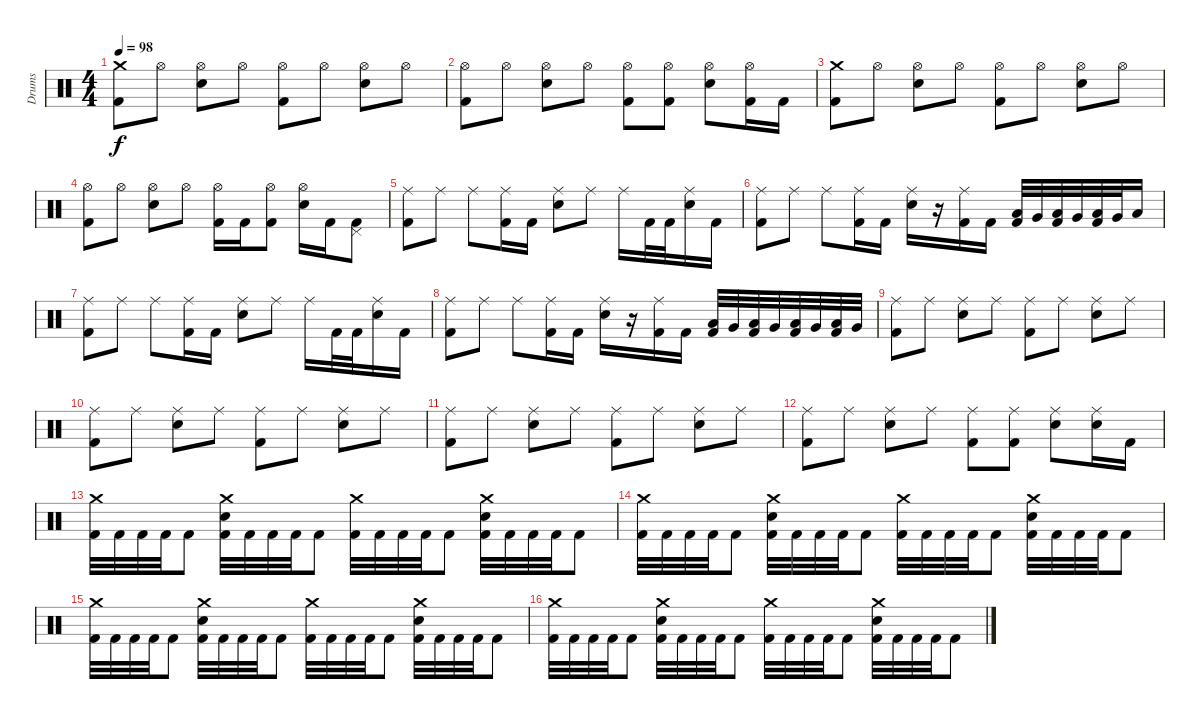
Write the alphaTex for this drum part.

\track ("Drums" "Drums") {instrument percussion}
\staff {score}
\articulation defaults
\ts (4 4)
\tempo 98
\clef neutral
\ks c
("Crash medium (hit)" "Kick (hit) 2").8{dy f} "Hi-Hat (open)".8 ("Hi-Hat (open)" "Snare (hit) 2").8 "Hi-Hat (open)".8 ("Hi-Hat (open)" "Kick (hit) 2").8 "Hi-Hat (open)".8 ("Hi-Hat (open)" "Snare (hit) 2").8 "Hi-Hat (open)".8 |
("Hi-Hat (open)" "Kick (hit) 2").8 "Hi-Hat (open)".8 ("Hi-Hat (open)" "Snare (hit) 2").8 "Hi-Hat (open)".8 ("Hi-Hat (open)" "Kick (hit) 2").8 ("Hi-Hat (open)" "Kick (hit) 2").8 ("Hi-Hat (open)" "Snare (hit) 2").8 ("Hi-Hat (open)" "Kick (hit) 2").16 "Kick (hit) 2".16 |
("Crash medium (hit)" "Kick (hit) 2").8 "Hi-Hat (open)".8 ("Hi-Hat (open)" "Snare (hit) 2").8 "Hi-Hat (open)".8 ("Hi-Hat (open)" "Kick (hit) 2").8 "Hi-Hat (open)".8 ("Hi-Hat (open)" "Snare (hit) 2").8 "Hi-Hat (open)".8 |
("Hi-Hat (open)" "Kick (hit) 2").8 "Hi-Hat (open)".8 ("Hi-Hat (open)" "Snare (hit) 2").8 "Hi-Hat (open)".8 ("Hi-Hat (open)" "Kick (hit) 2").16 "Kick (hit) 2".16 ("Hi-Hat (open)" "Kick (hit) 2").8 ("Hi-Hat (open)" "Snare (hit) 2").16 "Kick (hit) 2".16 ("Pedal Hi-Hat (hit)" "Kick (hit) 2").8 |
("Ride (middle)" "Kick (hit) 2").8 "Ride (middle)".8 "Ride (middle)".8 ("Ride (middle)" "Kick (hit) 2").16 "Kick (hit) 2".16 ("Ride (middle)" "Snare (hit) 2").8 "Ride (middle)".8 "Ride (middle)".16 "Kick (hit) 2".32 "Kick (hit) 2".32 ("Ride (middle)" "Snare (hit) 2").16 "Kick (hit) 2".16 |
("Ride (middle)" "Kick (hit) 2").8 "Ride (middle)".8 "Ride (middle)".8 ("Ride (middle)" "Kick (hit) 2").16 "Kick (hit) 2".16 ("Ride (middle)" "Snare (hit) 2").16 r.16 ("Ride (middle)" "Kick (hit) 2").16 "Kick (hit) 2".16 ("Low Tom (hit)" "Kick (hit) 2").32 "Very Low Tom (hit)".32 ("Low Tom (hit)" "Kick (hit) 2").32 "Very Low Tom (hit)".32 ("Low Tom (hit)" "Kick (hit) 2").32 "Very Low Tom (hit)".32 "Low Tom (hit)".16 |
("Ride (middle)" "Kick (hit) 2").8 "Ride (middle)".8 "Ride (middle)".8 ("Ride (middle)" "Kick (hit) 2").16 "Kick (hit) 2".16 ("Ride (middle)" "Snare (hit) 2").8 "Ride (middle)".8 "Ride (middle)".16 "Kick (hit) 2".32 "Kick (hit) 2".32 ("Ride (middle)" "Snare (hit) 2").16 "Kick (hit) 2".16 |
("Ride (middle)" "Kick (hit) 2").8 "Ride (middle)".8 "Ride (middle)".8 ("Ride (middle)" "Kick (hit) 2").16 "Kick (hit) 2".16 ("Ride (middle)" "Snare (hit) 2").16 r.16 ("Ride (middle)" "Kick (hit) 2").16 "Kick (hit) 2".16 ("Low Tom (hit)" "Kick (hit) 2").32 "Very Low Tom (hit)".32 ("Low Tom (hit)" "Kick (hit) 2").32 "Very Low Tom (hit)".32 ("Low Tom (hit)" "Kick (hit) 2").32 "Very Low Tom (hit)".32 ("Low Tom (hit)" "Kick (hit) 2").32 "Very Low Tom (hit)".32 |
("Ride (middle)" "Kick (hit) 2").8 "Ride (middle)".8 ("Ride (middle)" "Snare (hit) 2").8 "Ride (middle)".8 ("Ride (middle)" "Kick (hit) 2").8 "Ride (middle)".8 ("Ride (middle)" "Snare (hit) 2").8 "Ride (middle)".8 |
("Ride (middle)" "Kick (hit) 2").8 "Ride (middle)".8 ("Ride (middle)" "Snare (hit) 2").8 "Ride (middle)".8 ("Ride (middle)" "Kick (hit) 2").8 "Ride (middle)".8 ("Ride (middle)" "Snare (hit) 2").8 "Ride (middle)".8 |
("Ride (middle)" "Kick (hit) 2").8 "Ride (middle)".8 ("Ride (middle)" "Snare (hit) 2").8 "Ride (middle)".8 ("Ride (middle)" "Kick (hit) 2").8 "Ride (middle)".8 ("Ride (middle)" "Snare (hit) 2").8 "Ride (middle)".8 |
("Ride (middle)" "Kick (hit) 2").8 "Ride (middle)".8 ("Ride (middle)" "Snare (hit) 2").8 "Ride (middle)".8 ("Ride (middle)" "Kick (hit) 2").8 ("Ride (middle)" "Kick (hit) 2").8 ("Ride (middle)" "Snare (hit) 2").8 ("Ride (middle)" "Snare (hit) 2").16 "Kick (hit) 2".16 |
("Crash medium (hit)" "Kick (hit) 2").32 "Kick (hit) 2".32 "Kick (hit) 2".32 "Kick (hit) 2".32 "Kick (hit) 2".8 ("Crash medium (hit)" "Snare (hit) 2" "Kick (hit) 2").32 "Kick (hit) 2".32 "Kick (hit) 2".32 "Kick (hit) 2".32 "Kick (hit) 2".8 ("Crash medium (hit)" "Kick (hit) 2").32 "Kick (hit) 2".32 "Kick (hit) 2".32 "Kick (hit) 2".32 "Kick (hit) 2".8 ("Crash medium (hit)" "Snare (hit) 2" "Kick (hit) 2").32 "Kick (hit) 2".32 "Kick (hit) 2".32 "Kick (hit) 2".32 "Kick (hit) 2".8 |
("Crash medium (hit)" "Kick (hit) 2").32 "Kick (hit) 2".32 "Kick (hit) 2".32 "Kick (hit) 2".32 "Kick (hit) 2".8 ("Crash medium (hit)" "Snare (hit) 2" "Kick (hit) 2").32 "Kick (hit) 2".32 "Kick (hit) 2".32 "Kick (hit) 2".32 "Kick (hit) 2".8 ("Crash medium (hit)" "Kick (hit) 2").32 "Kick (hit) 2".32 "Kick (hit) 2".32 "Kick (hit) 2".32 "Kick (hit) 2".8 ("Crash medium (hit)" "Snare (hit) 2" "Kick (hit) 2").32 "Kick (hit) 2".32 "Kick (hit) 2".32 "Kick (hit) 2".32 "Kick (hit) 2".8 |
("Crash medium (hit)" "Kick (hit) 2").32 "Kick (hit) 2".32 "Kick (hit) 2".32 "Kick (hit) 2".32 "Kick (hit) 2".8 ("Crash medium (hit)" "Snare (hit) 2" "Kick (hit) 2").32 "Kick (hit) 2".32 "Kick (hit) 2".32 "Kick (hit) 2".32 "Kick (hit) 2".8 ("Crash medium (hit)" "Kick (hit) 2").32 "Kick (hit) 2".32 "Kick (hit) 2".32 "Kick (hit) 2".32 "Kick (hit) 2".8 ("Crash medium (hit)" "Snare (hit) 2" "Kick (hit) 2").32 "Kick (hit) 2".32 "Kick (hit) 2".32 "Kick (hit) 2".32 "Kick (hit) 2".8 |
("Crash medium (hit)" "Kick (hit) 2").32 "Kick (hit) 2".32 "Kick (hit) 2".32 "Kick (hit) 2".32 "Kick (hit) 2".8 ("Crash medium (hit)" "Snare (hit) 2" "Kick (hit) 2").32 "Kick (hit) 2".32 "Kick (hit) 2".32 "Kick (hit) 2".32 "Kick (hit) 2".8 ("Crash medium (hit)" "Kick (hit) 2").32 "Kick (hit) 2".32 "Kick (hit) 2".32 "Kick (hit) 2".32 "Kick (hit) 2".8 ("Crash medium (hit)" "Snare (hit) 2" "Kick (hit) 2").32 "Kick (hit) 2".32 "Kick (hit) 2".32 "Kick (hit) 2".32 "Kick (hit) 2".8
